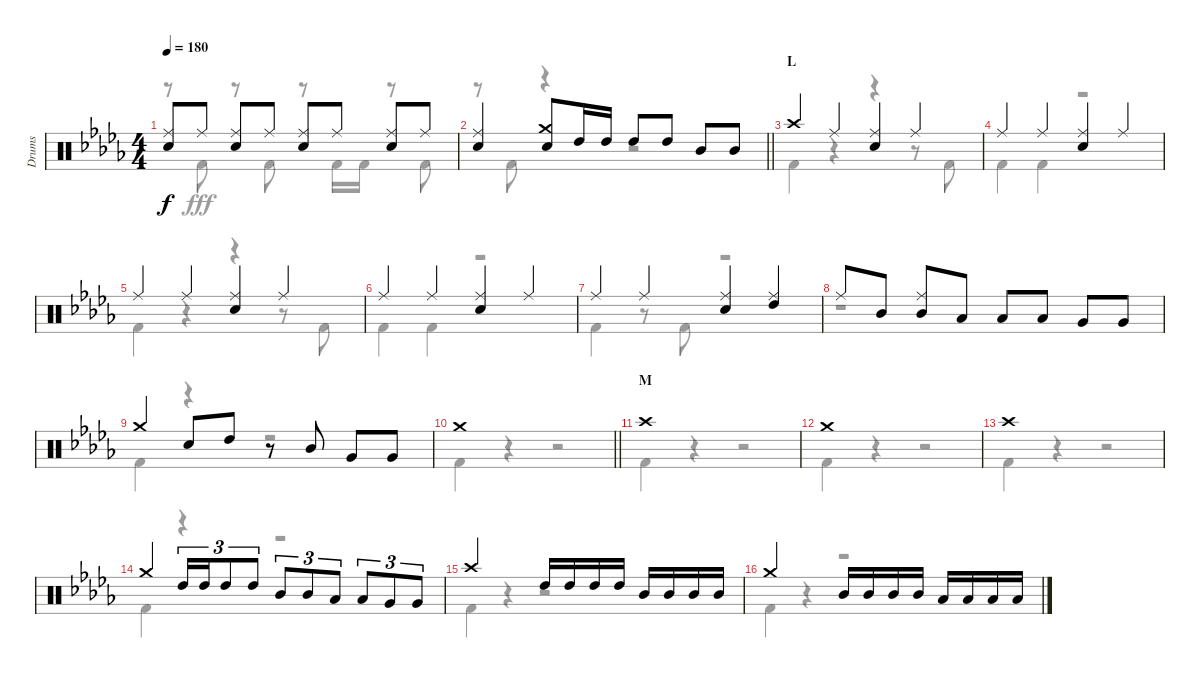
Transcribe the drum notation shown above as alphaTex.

\track ("Drums" "Drums") {instrument percussion}
\staff {score}
\articulation defaults
\voice
\ts (4 4)
\tempo 180
\clef neutral
\ks db
("Ride (middle)" "Snare (hit) 2").8{dy f} "Ride (middle)".8 ("Ride (middle)" "Snare (hit) 2").8 "Ride (middle)".8 ("Ride (middle)" "Snare (hit) 2").8 "Ride (middle)".8 ("Ride (middle)" "Snare (hit) 2").8 "Ride (middle)".8 |
\barLineRight lightlight
("Ride (middle)" "Snare (hit) 2").4 ("Crash medium (hit)" "Snare (hit) 2").8 "High Tom (hit)".16 "High Tom (hit)".16 "High Tom (hit)".8 "High Tom (hit)".8 "Mid Tom (hit)".8 "Mid Tom (hit)".8 |
\section ("" "L")
"Crash high (hit)".4 "Ride (middle)".4 ("Ride (middle)" "Snare (hit) 2").4 "Ride (middle)".4 |
"Ride (middle)".4 "Ride (middle)".4 ("Ride (middle)" "Snare (hit) 2").4 "Ride (middle)".4 |
"Ride (middle)".4 "Ride (middle)".4 ("Ride (middle)" "Snare (hit) 2").4 "Ride (middle)".4 |
"Ride (middle)".4 "Ride (middle)".4 ("Ride (middle)" "Snare (hit) 2").4 "Ride (middle)".4 |
"Ride (middle)".4 "Ride (middle)".4 ("Ride (middle)" "Snare (hit) 2").4 ("Ride (middle)" "High Tom (hit)").4 |
"Ride (middle)".8 "Mid Tom (hit)".8 ("Ride (middle)" "Mid Tom (hit)").8 "Low Tom (hit)".8 "Low Tom (hit)".8 "Low Tom (hit)".8 "Very Low Tom (hit)".8 "Very Low Tom (hit)".8 |
"Crash medium (hit)".4 "Snare (hit) 2".8 "High Tom (hit)".8 r.8 "Mid Tom (hit)".8 "Very Low Tom (hit)".8 "Very Low Tom (hit)".8 |
\barLineRight lightlight "Crash medium (hit)".1
|
\section ("" "M")
"Crash high (hit)".1 |
"Crash medium (hit)".1 |
"Crash high (hit)".1 |
"Crash medium (hit)".4 "High Tom (hit)".16{tu (3 2)} "High Tom (hit)".16{tu (3 2)} "High Tom (hit)".8{tu (3 2)} "High Tom (hit)".8{tu (3 2)} "Mid Tom (hit)".8{tu (3 2)} "Mid Tom (hit)".8{tu (3 2)} "Low Tom (hit)".8{tu (3 2)} "Low Tom (hit)".8{tu (3 2)} "Very Low Tom (hit)".8{tu (3 2)} "Very Low Tom (hit)".8{tu (3 2)} |
"Crash high (hit)".2 "High Tom (hit)".16 "High Tom (hit)".16 "High Tom (hit)".16 "High Tom (hit)".16 "Mid Tom (hit)".16 "Mid Tom (hit)".16 "Mid Tom (hit)".16 "Mid Tom (hit)".16 |
"Crash medium (hit)".2 "Mid Tom (hit)".16 "Mid Tom (hit)".16 "Mid Tom (hit)".16 "Mid Tom (hit)".16 "Low Tom (hit)".16 "Low Tom (hit)".16 "Low Tom (hit)".16 "Low Tom (hit)".16
\voice
\clef neutral
\ottava regular
\simile none
\ks db
r.8{dy fff} "Kick (hit) 2".8 r.8 "Kick (hit) 2".8 r.8 "Kick (hit) 2".16 "Kick (hit) 2".16 r.8 "Kick (hit) 2".8 |
\barLineRight lightlight
r.8 "Kick (hit) 2".8 r.4 r.2 |
"Kick (hit) 2".4 r.4 r.4 r.8 "Kick (hit) 2".8 |
"Kick (hit) 2".4 "Kick (hit) 2".4 r.2 |
"Kick (hit) 2".4 r.4 r.4 r.8 "Kick (hit) 2".8 |
"Kick (hit) 2".4 "Kick (hit) 2".4 r.2 |
"Kick (hit) 2".4 r.8 "Kick (hit) 2".8 r.2 |
r.1 |
"Kick (hit) 2".4 r.4 r.2 |
\barLineRight lightlight "Kick (hit) 2".4
r.4 r.2 |
"Kick (hit) 2".4 r.4 r.2 |
"Kick (hit) 2".4 r.4 r.2 |
"Kick (hit) 2".4 r.4 r.2 |
"Kick (hit) 2".4 r.4 r.2 |
"Kick (hit) 2".4 r.4 r.2 |
"Kick (hit) 2".4 r.4 r.2
